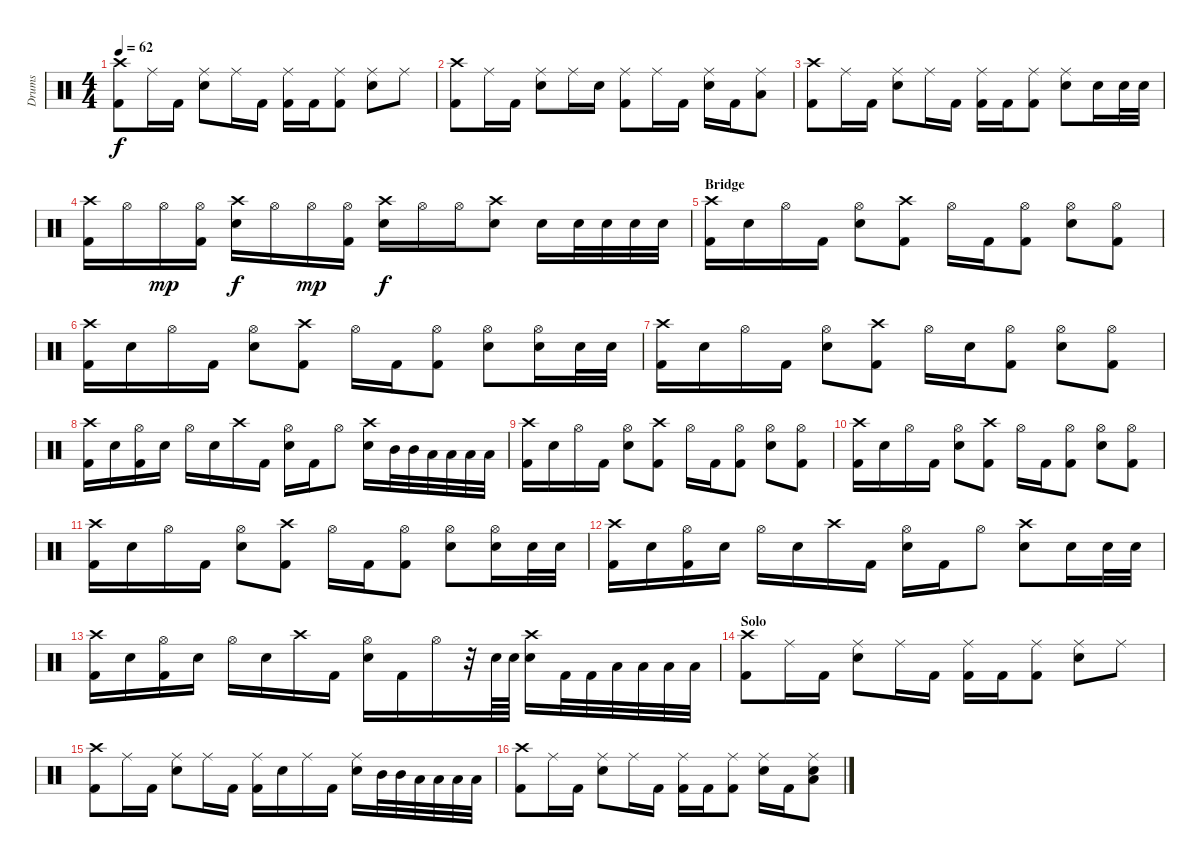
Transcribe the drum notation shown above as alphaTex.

\track ("Drums" "Drums") {instrument percussion}
\staff {score}
\articulation defaults
\ts (4 4)
\tempo 62
\clef neutral
\ks c
("Crash high (hit)" "Kick (hit) 2").8{dy f} "Ride (middle)".16 "Kick (hit) 2".16 ("Ride (middle)" "Snare (hit) 2").8 "Ride (middle)".16 "Kick (hit) 2".16 ("Ride (middle)" "Kick (hit) 2").16 "Kick (hit) 2".16 ("Ride (middle)" "Kick (hit) 2").8 ("Ride (middle)" "Snare (hit) 2").8 "Ride (middle)".8 |
("Crash high (hit)" "Kick (hit) 2").8 "Ride (middle)".16 "Kick (hit) 2".16 ("Ride (middle)" "Snare (hit) 2").8 "Ride (middle)".16 "Snare (hit) 2".16 ("Ride (middle)" "Kick (hit) 2").8 "Ride (middle)".16 "Kick (hit) 2".16 ("Ride (middle)" "Snare (hit) 2").16 "Kick (hit) 2".16 ("Ride (middle)" "Low Floor Tom (hit)").8 |
("Crash high (hit)" "Kick (hit) 2").8 "Ride (middle)".16 "Kick (hit) 2".16 ("Ride (middle)" "Snare (hit) 2").8 "Ride (middle)".16 "Kick (hit) 2".16 ("Ride (middle)" "Kick (hit) 2").16 "Kick (hit) 2".16 ("Ride (middle)" "Kick (hit) 2").8 ("Ride (middle)" "Snare (hit) 2").8 "Snare (hit) 2".16 "Snare (hit) 2".32 "Snare (hit) 2".32 |
("Crash high (hit)" "Kick (hit) 2").16 "Hi-Hat (open)".16 "Hi-Hat (open)".16{dy mp} ("Hi-Hat (open)" "Kick (hit) 2").16 ("Crash high (hit)" "Snare (hit) 2").16{dy f} "Hi-Hat (open)".16 "Hi-Hat (open)".16{dy mp} ("Hi-Hat (open)" "Kick (hit) 2").16 ("Crash high (hit)" "Snare (hit) 2").16{dy f} "Hi-Hat (open)".16 "Hi-Hat (open)".16 ("Crash high (hit)" "Snare (hit) 2").8 "Snare (hit) 2".16 "Snare (hit) 2".32 "Snare (hit) 2".32 "Snare (hit) 2".32 "Snare (hit) 2".32 |
\section ("" "Bridge")
("Crash high (hit)" "Kick (hit) 2").16 "Snare (hit) 2".16 "Hi-Hat (open)".16 "Kick (hit) 2".16 ("Hi-Hat (open)" "Snare (hit) 2").8 ("Crash high (hit)" "Kick (hit) 2").8 "Hi-Hat (open)".16 "Kick (hit) 2".16 ("Hi-Hat (open)" "Kick (hit) 2").8 ("Hi-Hat (open)" "Snare (hit) 2").8 ("Hi-Hat (open)" "Kick (hit) 2").8 |
("Crash high (hit)" "Kick (hit) 2").16 "Snare (hit) 2".16 "Hi-Hat (open)".16 "Kick (hit) 2".16 ("Hi-Hat (open)" "Snare (hit) 2").8 ("Crash high (hit)" "Kick (hit) 2").8 "Hi-Hat (open)".16 "Kick (hit) 2".16 ("Hi-Hat (open)" "Kick (hit) 2").8 ("Hi-Hat (open)" "Snare (hit) 2").8 ("Hi-Hat (open)" "Snare (hit) 2").16 "Snare (hit) 2".32 "Snare (hit) 2".32 |
("Crash high (hit)" "Kick (hit) 2").16 "Snare (hit) 2".16 "Hi-Hat (open)".16 "Kick (hit) 2".16 ("Hi-Hat (open)" "Snare (hit) 2").8 ("Crash high (hit)" "Kick (hit) 2").8 "Hi-Hat (open)".16 "Snare (hit) 2".16 ("Hi-Hat (open)" "Kick (hit) 2").8 ("Hi-Hat (open)" "Snare (hit) 2").8 ("Hi-Hat (open)" "Kick (hit) 2").8 |
("Crash high (hit)" "Kick (hit) 2").16 "Snare (hit) 2".16 ("Hi-Hat (open)" "Kick (hit) 2").16 "Snare (hit) 2".16 "Hi-Hat (open)".16 "Snare (hit) 2".16 "Crash high (hit)".16 "Kick (hit) 2".16 ("Hi-Hat (open)" "Snare (hit) 2").16 "Kick (hit) 2".16 "Hi-Hat (open)".8 ("Crash high (hit)" "Snare (hit) 2").16 "Mid Tom (hit)".32 "Mid Tom (hit)".32 "Low Tom (hit)".32 "Low Tom (hit)".32 "Low Floor Tom (hit)".32 "Low Floor Tom (hit)".32 |
("Crash high (hit)" "Kick (hit) 2").16 "Snare (hit) 2".16 "Hi-Hat (open)".16 "Kick (hit) 2".16 ("Hi-Hat (open)" "Snare (hit) 2").8 ("Crash high (hit)" "Kick (hit) 2").8 "Hi-Hat (open)".16 "Kick (hit) 2".16 ("Hi-Hat (open)" "Kick (hit) 2").8 ("Hi-Hat (open)" "Snare (hit) 2").8 ("Hi-Hat (open)" "Kick (hit) 2").8 |
("Crash high (hit)" "Kick (hit) 2").16 "Snare (hit) 2".16 "Hi-Hat (open)".16 "Kick (hit) 2".16 ("Hi-Hat (open)" "Snare (hit) 2").8 ("Crash high (hit)" "Kick (hit) 2").8 "Hi-Hat (open)".16 "Kick (hit) 2".16 ("Hi-Hat (open)" "Kick (hit) 2").8 ("Hi-Hat (open)" "Snare (hit) 2").8 ("Hi-Hat (open)" "Kick (hit) 2").8 |
("Crash high (hit)" "Kick (hit) 2").16 "Snare (hit) 2".16 "Hi-Hat (open)".16 "Kick (hit) 2".16 ("Hi-Hat (open)" "Snare (hit) 2").8 ("Crash high (hit)" "Kick (hit) 2").8 "Hi-Hat (open)".16 "Kick (hit) 2".16 ("Hi-Hat (open)" "Kick (hit) 2").8 ("Hi-Hat (open)" "Snare (hit) 2").8 ("Hi-Hat (open)" "Snare (hit) 2").16 "Snare (hit) 2".32 "Snare (hit) 2".32 |
("Crash high (hit)" "Kick (hit) 2").16 "Snare (hit) 2".16 ("Hi-Hat (open)" "Kick (hit) 2").16 "Snare (hit) 2".16 "Hi-Hat (open)".16 "Snare (hit) 2".16 "Crash high (hit)".16 "Kick (hit) 2".16 ("Hi-Hat (open)" "Snare (hit) 2").16 "Kick (hit) 2".16 "Hi-Hat (open)".8 ("Crash high (hit)" "Snare (hit) 2").8 "Snare (hit) 2".16 "Snare (hit) 2".32 "Snare (hit) 2".32 |
("Crash high (hit)" "Kick (hit) 2").16 "Snare (hit) 2".16 ("Hi-Hat (open)" "Kick (hit) 2").16 "Snare (hit) 2".16 "Hi-Hat (open)".16 "Snare (hit) 2".16 "Crash high (hit)".16 "Kick (hit) 2".16 ("Hi-Hat (open)" "Snare (hit) 2").16 "Kick (hit) 2".16 "Hi-Hat (open)".16 r.32 "Snare (hit) 2".64 "Snare (hit) 2".64 ("Crash high (hit)" "Snare (hit) 2").16 "Kick (hit) 2".32 "Kick (hit) 2".32 "Low Tom (hit)".32 "Low Tom (hit)".32 "Low Floor Tom (hit)".32 "Low Floor Tom (hit)".32 |
\section ("" "Solo")
("Crash high (hit)" "Kick (hit) 2").8 "Ride (middle)".16 "Kick (hit) 2".16 ("Ride (middle)" "Snare (hit) 2").8 "Ride (middle)".16 "Kick (hit) 2".16 ("Ride (middle)" "Kick (hit) 2").16 "Kick (hit) 2".16 ("Ride (middle)" "Kick (hit) 2").8 ("Ride (middle)" "Snare (hit) 2").8 "Ride (middle)".8 |
("Crash high (hit)" "Kick (hit) 2").8 "Ride (middle)".16 "Kick (hit) 2".16 ("Ride (middle)" "Snare (hit) 2").8 "Ride (middle)".16 "Kick (hit) 2".16 ("Ride (middle)" "Kick (hit) 2").16 "Snare (hit) 2".16 "Ride (middle)".16 "Kick (hit) 2".16 ("Ride (middle)" "Snare (hit) 2").16 "Mid Tom (hit)".32 "Mid Tom (hit)".32 "Low Tom (hit)".32 "Low Tom (hit)".32 "Low Floor Tom (hit)".32 "Low Floor Tom (hit)".32 |
("Crash high (hit)" "Kick (hit) 2").8 "Ride (middle)".16 "Kick (hit) 2".16 ("Ride (middle)" "Snare (hit) 2").8 "Ride (middle)".16 "Kick (hit) 2".16 ("Ride (middle)" "Kick (hit) 2").16 "Kick (hit) 2".16 ("Ride (middle)" "Kick (hit) 2").8 ("Ride (middle)" "Snare (hit) 2").16 "Kick (hit) 2".16 ("Ride (middle)" "Snare (hit) 2" "Low Floor Tom (hit)").8
